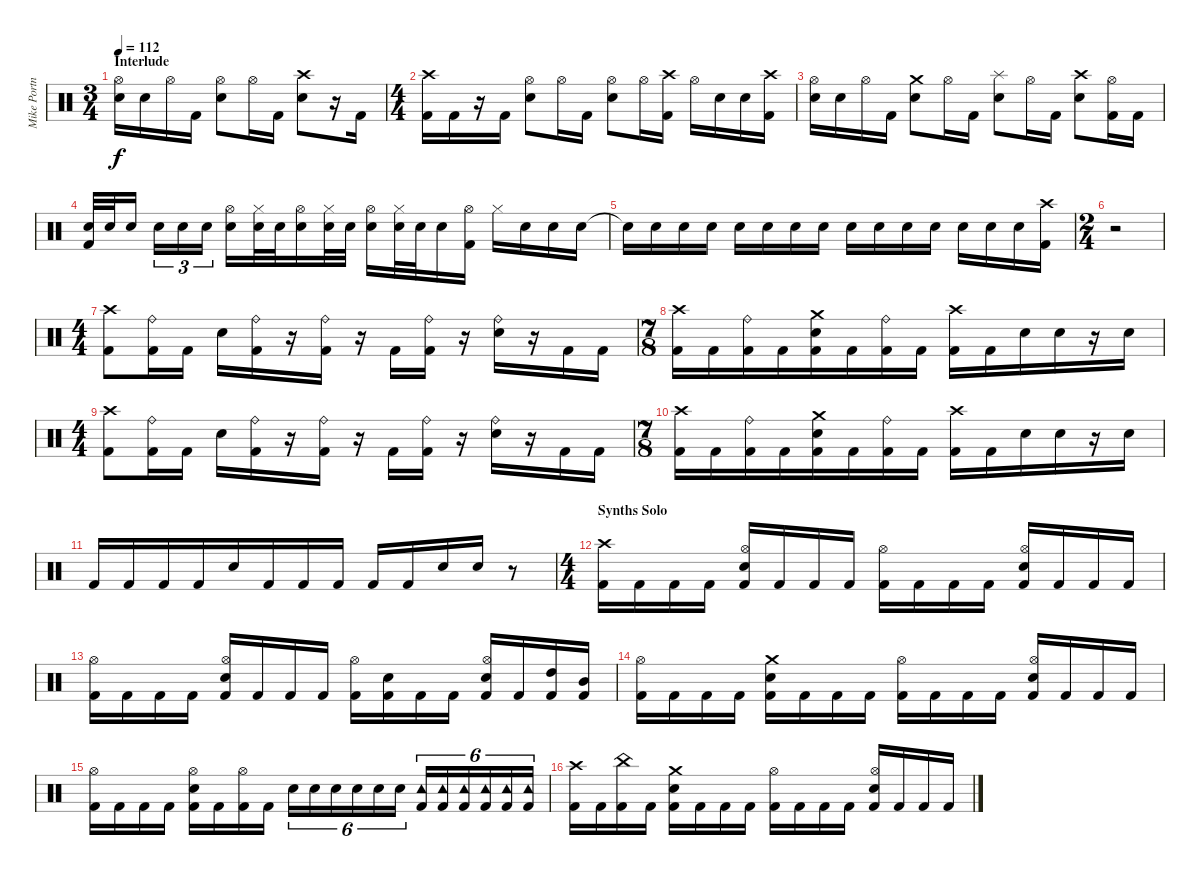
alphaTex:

\track ("Mike Portnoy" "Mike Portn") {instrument percussion}
\staff {score}
\articulation defaults
\ts (3 4)
\section ("" "Interlude")
\tempo 112
\clef neutral
\ks c
("Electric Snare (hit)" "Hi-Hat (open)").16{dy f} "Electric Snare (hit)".16 "Hi-Hat (open)".16 "Kick (hit) 2".16 ("Electric Snare (hit)" "Hi-Hat (open)").8 "Hi-Hat (open)".16 "Kick (hit) 2".16 ("Electric Snare (hit)" "Crash high (hit)").8 r.16 "Kick (hit) 2".16 |
\ts (4 4)
("Kick (hit) 2" "Crash high (hit)").16 "Kick (hit) 2".16 r.16 "Kick (hit) 2".16 ("Electric Snare (hit)" "Hi-Hat (open)").8 "Hi-Hat (open)".16 "Kick (hit) 2".16 ("Electric Snare (hit)" "Hi-Hat (open)").8 "Hi-Hat (open)".16 ("Kick (hit) 2" "Crash high (hit)").16 "Hi-Hat (open)".16 "Electric Snare (hit)".16 "Electric Snare (hit)".16 ("Kick (hit) 2" "Crash high (hit)").16 |
("Electric Snare (hit)" "Hi-Hat (open)").16 "Electric Snare (hit)".16 "Hi-Hat (open)".16 "Kick (hit) 2".16 ("Electric Snare (hit)" "Crash medium (hit)").8 "Hi-Hat (open)".16 "Kick (hit) 2".16 ("Electric Snare (hit)" "Splash (hit)").8 "Hi-Hat (open)".16 "Kick (hit) 2".16 ("Electric Snare (hit)" "Crash high (hit)").8 ("Kick (hit) 2" "Hi-Hat (open)").16 "Kick (hit) 2".16 |
("Kick (hit) 2" "Electric Snare (hit)").32 "Electric Snare (hit)".32 "Electric Snare (hit)".16 "Electric Snare (hit)".16{tu (3 2)} "Electric Snare (hit)".16{tu (3 2)} "Electric Snare (hit)".16{tu (3 2)} ("Electric Snare (hit)" "Hi-Hat (open)").16 ("Electric Snare (hit)" "Hi-Hat (closed)").32 "Electric Snare (hit)".32 ("Electric Snare (hit)" "Hi-Hat (open)").16 ("Electric Snare (hit)" "Hi-Hat (closed)").32 "Electric Snare (hit)".32 ("Electric Snare (hit)" "Hi-Hat (open)").16 ("Electric Snare (hit)" "Hi-Hat (closed)").32 "Electric Snare (hit)".32 "Electric Snare (hit)".16 ("Kick (hit) 2" "Hi-Hat (open)").16 "Hi-Hat (closed)".16 "Electric Snare (hit)".16 "Electric Snare (hit)".16 "Electric Snare (hit)".16 |
"Snare (hit)"{t}.16 "Electric Snare (hit)".16 "Electric Snare (hit)".16 "Electric Snare (hit)".16 "Electric Snare (hit)".16 "Electric Snare (hit)".16 "Electric Snare (hit)".16 "Electric Snare (hit)".16 "Electric Snare (hit)".16 "Electric Snare (hit)".16 "Electric Snare (hit)".16 "Electric Snare (hit)".16 "Electric Snare (hit)".16 "Electric Snare (hit)".16 "Electric Snare (hit)".16 ("Kick (hit) 2" "Crash high (hit)").16 |
\ts (2 4)
r.2 |
\ts (4 4)
("Kick (hit) 2" "Crash high (hit)").8 ("Kick (hit) 2" "Ride (bell)").16 "Kick (hit) 2".16 "Electric Snare (hit)".16 ("Kick (hit) 2" "Ride (bell)").16 r.16 ("Kick (hit) 2" "Ride (bell)").16 r.16 "Kick (hit) 2".16 ("Kick (hit) 2" "Ride (bell)").16 r.16 ("Electric Snare (hit)" "Ride (bell)").16 r.16 "Kick (hit) 2".16 "Kick (hit) 2".16 |
\ts (7 8)
("Kick (hit) 2" "Crash high (hit)").16 "Kick (hit) 2".16 ("Kick (hit) 2" "Ride (bell)").16 "Kick (hit) 2".16 ("Kick (hit) 2" "Electric Snare (hit)" "Crash medium (hit)").16 "Kick (hit) 2".16 ("Kick (hit) 2" "Ride (bell)").16 "Kick (hit) 2".16 ("Kick (hit) 2" "Crash high (hit)").16 "Kick (hit) 2".16 "Electric Snare (hit)".16 "Electric Snare (hit)".16 r.16 "Electric Snare (hit)".16 |
\ts (4 4)
("Kick (hit) 2" "Crash high (hit)").8 ("Kick (hit) 2" "Ride (bell)").16 "Kick (hit) 2".16 "Electric Snare (hit)".16 ("Kick (hit) 2" "Ride (bell)").16 r.16 ("Kick (hit) 2" "Ride (bell)").16 r.16 "Kick (hit) 2".16 ("Kick (hit) 2" "Ride (bell)").16 r.16 ("Electric Snare (hit)" "Ride (bell)").16 r.16 "Kick (hit) 2".16 "Kick (hit) 2".16 |
\ts (7 8)
("Kick (hit) 2" "Crash high (hit)").16 "Kick (hit) 2".16 ("Kick (hit) 2" "Ride (bell)").16 "Kick (hit) 2".16 ("Kick (hit) 2" "Electric Snare (hit)" "Crash medium (hit)").16 "Kick (hit) 2".16 ("Kick (hit) 2" "Ride (bell)").16 "Kick (hit) 2".16 ("Kick (hit) 2" "Crash high (hit)").16 "Kick (hit) 2".16 "Electric Snare (hit)".16 "Electric Snare (hit)".16 r.16 "Electric Snare (hit)".16 |
"Kick (hit) 2".16 "Kick (hit) 2".16 "Kick (hit) 2".16 "Kick (hit) 2".16 "Electric Snare (hit)".16 "Kick (hit) 2".16 "Kick (hit) 2".16 "Kick (hit) 2".16 "Kick (hit) 2".16 "Kick (hit) 2".16 "Electric Snare (hit)".16 "Electric Snare (hit)".16 r.8 |
\ts (4 4)
\section ("" "Synths Solo")
("Kick (hit) 2" "Crash high (hit)").16 "Kick (hit) 2".16 "Kick (hit) 2".16 "Kick (hit) 2".16 ("Kick (hit) 2" "Electric Snare (hit)" "Hi-Hat (open)").16 "Kick (hit) 2".16 "Kick (hit) 2".16 "Kick (hit) 2".16 ("Kick (hit) 2" "Hi-Hat (open)").16 "Kick (hit) 2".16 "Kick (hit) 2".16 "Kick (hit) 2".16 ("Kick (hit) 2" "Electric Snare (hit)" "Hi-Hat (open)").16 "Kick (hit) 2".16 "Kick (hit) 2".16 "Kick (hit) 2".16 |
("Kick (hit) 2" "Hi-Hat (open)").16 "Kick (hit) 2".16 "Kick (hit) 2".16 "Kick (hit) 2".16 ("Kick (hit) 2" "Electric Snare (hit)" "Hi-Hat (open)").16 "Kick (hit) 2".16 "Kick (hit) 2".16 "Kick (hit) 2".16 ("Kick (hit) 2" "Hi-Hat (open)").16 ("Kick (hit) 2" "Electric Snare (hit)").16 "Kick (hit) 2".16 "Kick (hit) 2".16 ("Kick (hit) 2" "Electric Snare (hit)" "Hi-Hat (open)").16 "Kick (hit) 2".16 ("Kick (hit) 2" "High Tom (hit)").16 ("Kick (hit) 2" "Mid Tom (hit)").16 |
("Kick (hit) 2" "Hi-Hat (open)").16 "Kick (hit) 2".16 "Kick (hit) 2".16 "Kick (hit) 2".16 ("Kick (hit) 2" "Electric Snare (hit)" "Crash medium (hit)").16 "Kick (hit) 2".16 "Kick (hit) 2".16 "Kick (hit) 2".16 ("Kick (hit) 2" "Hi-Hat (open)").16 "Kick (hit) 2".16 "Kick (hit) 2".16 "Kick (hit) 2".16 ("Kick (hit) 2" "Electric Snare (hit)" "Hi-Hat (open)").16 "Kick (hit) 2".16 "Kick (hit) 2".16 "Kick (hit) 2".16 |
("Kick (hit) 2" "Hi-Hat (open)").16 "Kick (hit) 2".16 "Kick (hit) 2".16 "Kick (hit) 2".16 ("Kick (hit) 2" "Electric Snare (hit)" "Hi-Hat (open)").16 "Kick (hit) 2".16 ("Kick (hit) 2" "Hi-Hat (open)").16 "Kick (hit) 2".16 "Electric Snare (hit)".16{tu (6 4)} "Electric Snare (hit)".16{tu (6 4)} "Electric Snare (hit)".16{tu (6 4)} "Electric Snare (hit)".16{tu (6 4)} "Electric Snare (hit)".16{tu (6 4)} "Electric Snare (hit)".16{tu (6 4)} ("Kick (hit) 2" "Tambourine (hit)").16{tu (6 4)} ("Kick (hit) 2" "Tambourine (hit)").16{tu (6 4)} ("Kick (hit) 2" "Tambourine (hit)").16{tu (6 4)} ("Kick (hit) 2" "Tambourine (hit)").16{tu (6 4)} ("Kick (hit) 2" "Tambourine (hit)").16{tu (6 4)} ("Kick (hit) 2" "Tambourine (hit)").16{tu (6 4)} |
("Kick (hit) 2" "Crash high (hit)").16 "Kick (hit) 2".16 ("Kick (hit) 2" "China (hit)").16 "Kick (hit) 2".16 ("Kick (hit) 2" "Electric Snare (hit)" "Crash medium (hit)").16 "Kick (hit) 2".16 "Kick (hit) 2".16 "Kick (hit) 2".16 ("Kick (hit) 2" "Hi-Hat (open)").16 "Kick (hit) 2".16 "Kick (hit) 2".16 "Kick (hit) 2".16 ("Kick (hit) 2" "Electric Snare (hit)" "Hi-Hat (open)").16 "Kick (hit) 2".16 "Kick (hit) 2".16 "Kick (hit) 2".16
